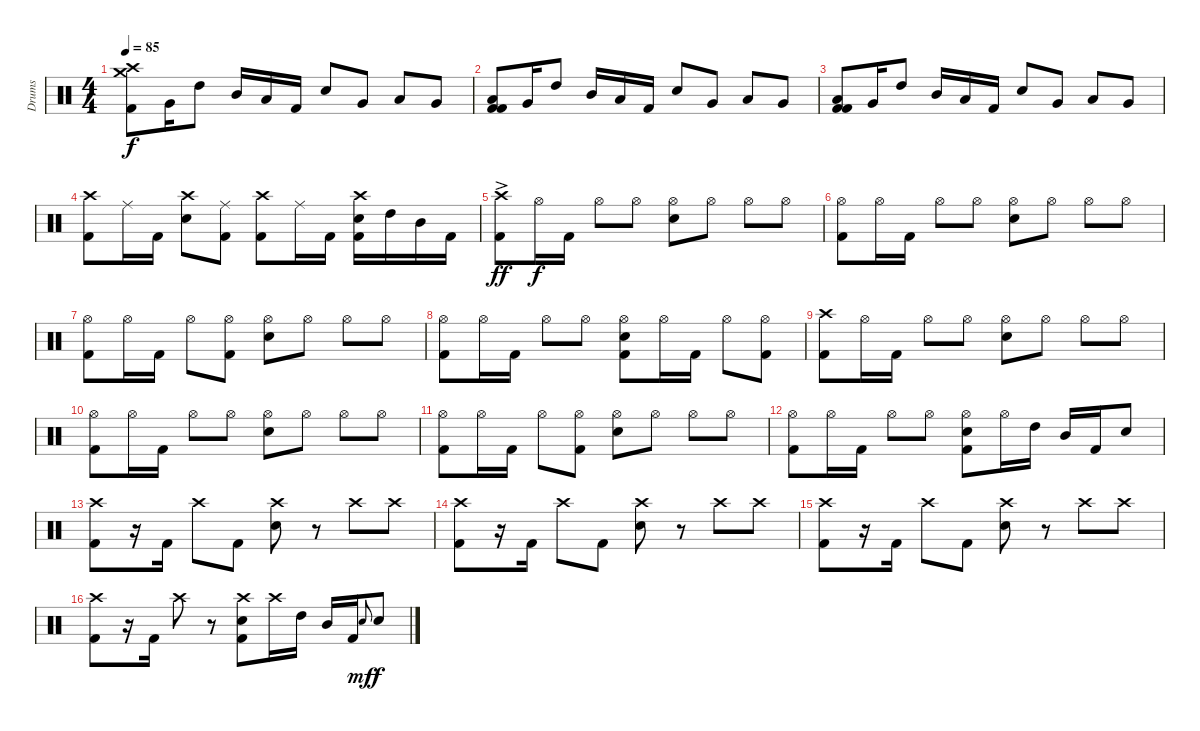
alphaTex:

\track ("Drums" "Drums") {instrument percussion}
\staff {score}
\articulation defaults
\ts (4 4)
\tempo 85
\clef neutral
\ks c
("Crash medium (hit)" "Crash high (hit)" "Kick (hit) 2").8{dy f} "Very Low Tom (hit)".16 "High Tom (hit)".8 "Mid Tom (hit)".16 "Low Tom (hit)".16 "Kick (hit) 2".16 "Electric Snare (hit)".8 "Very Low Tom (hit)".8 "Low Tom (hit)".8 "Very Low Tom (hit)".8 |
("Low Floor Tom (hit)" "Kick (hit) 2" "Kick (hit) 2").8 "Very Low Tom (hit)".16 "High Tom (hit)".8 "Mid Tom (hit)".16 "Low Tom (hit)".16 "Kick (hit) 2".16 "Electric Snare (hit)".8 "Very Low Tom (hit)".8 "Low Tom (hit)".8 "Very Low Tom (hit)".8 |
("Low Floor Tom (hit)" "Kick (hit) 2" "Kick (hit) 2").8 "Very Low Tom (hit)".16 "High Tom (hit)".8 "Mid Tom (hit)".16 "Low Tom (hit)".16 "Kick (hit) 2".16 "Electric Snare (hit)".8 "Very Low Tom (hit)".8 "Low Tom (hit)".8 "Very Low Tom (hit)".8 |
("Crash high (hit)" "Kick (hit) 2").8 "Ride (middle)".16 "Kick (hit) 2".16 ("Electric Snare (hit)" "Crash high (hit)").8 ("Kick (hit) 2" "Ride (middle)").8 ("Crash high (hit)" "Kick (hit) 2").8 "Ride (middle)".16 "Kick (hit) 2".16 ("Electric Snare (hit)" "Kick (hit) 2" "Crash high (hit)").16 "High Tom (hit)".16 "Mid Tom (hit)".16 "Kick (hit) 2".16 |
("Crash high (hit)"{ac} "Kick (hit) 2").8{dy ff} "Hi-Hat (open)".16{dy f} "Kick (hit) 2".16 "Hi-Hat (open)".8 "Hi-Hat (open)".8 ("Hi-Hat (open)" "Electric Snare (hit)").8 "Hi-Hat (open)".8 "Hi-Hat (open)".8 "Hi-Hat (open)".8 |
("Hi-Hat (open)" "Kick (hit) 2").8 "Hi-Hat (open)".16 "Kick (hit) 2".16 "Hi-Hat (open)".8 "Hi-Hat (open)".8 ("Hi-Hat (open)" "Electric Snare (hit)").8 "Hi-Hat (open)".8 "Hi-Hat (open)".8 "Hi-Hat (open)".8 |
("Hi-Hat (open)" "Kick (hit) 2").8 "Hi-Hat (open)".16 "Kick (hit) 2".16 "Hi-Hat (open)".8 ("Hi-Hat (open)" "Kick (hit) 2").8 ("Hi-Hat (open)" "Electric Snare (hit)").8 "Hi-Hat (open)".8 "Hi-Hat (open)".8 "Hi-Hat (open)".8 |
("Hi-Hat (open)" "Kick (hit) 2").8 "Hi-Hat (open)".16 "Kick (hit) 2".16 "Hi-Hat (open)".8 "Hi-Hat (open)".8 ("Hi-Hat (open)" "Electric Snare (hit)" "Kick (hit) 2").8 "Hi-Hat (open)".16 "Kick (hit) 2".16 "Hi-Hat (open)".8 ("Hi-Hat (open)" "Kick (hit) 2").8 |
("Crash high (hit)" "Kick (hit) 2").8 "Hi-Hat (open)".16 "Kick (hit) 2".16 "Hi-Hat (open)".8 "Hi-Hat (open)".8 ("Hi-Hat (open)" "Electric Snare (hit)").8 "Hi-Hat (open)".8 "Hi-Hat (open)".8 "Hi-Hat (open)".8 |
("Hi-Hat (open)" "Kick (hit) 2").8 "Hi-Hat (open)".16 "Kick (hit) 2".16 "Hi-Hat (open)".8 "Hi-Hat (open)".8 ("Hi-Hat (open)" "Electric Snare (hit)").8 "Hi-Hat (open)".8 "Hi-Hat (open)".8 "Hi-Hat (open)".8 |
("Hi-Hat (open)" "Kick (hit) 2").8 "Hi-Hat (open)".16 "Kick (hit) 2".16 "Hi-Hat (open)".8 ("Hi-Hat (open)" "Kick (hit) 2").8 ("Hi-Hat (open)" "Electric Snare (hit)").8 "Hi-Hat (open)".8 "Hi-Hat (open)".8 "Hi-Hat (open)".8 |
("Hi-Hat (open)" "Kick (hit) 2").8 "Hi-Hat (open)".16 "Kick (hit) 2".16 "Hi-Hat (open)".8 "Hi-Hat (open)".8 ("Hi-Hat (open)" "Electric Snare (hit)" "Kick (hit) 2").8 "Hi-Hat (open)".16 "High Tom (hit)".16 "Mid Tom (hit)".16 "Kick (hit) 2".16 "Electric Snare (hit)".8 |
("Crash high (hit)" "Kick (hit) 2").8 r.16 "Kick (hit) 2".16 "Crash high (hit)".8 "Kick (hit) 2".8 ("Crash high (hit)" "Electric Snare (hit)").8 r.8 "Crash high (hit)".8 "Crash high (hit)".8 |
("Crash high (hit)" "Kick (hit) 2").8 r.16 "Kick (hit) 2".16 "Crash high (hit)".8 "Kick (hit) 2".8 ("Crash high (hit)" "Electric Snare (hit)").8 r.8 "Crash high (hit)".8 "Crash high (hit)".8 |
("Crash high (hit)" "Kick (hit) 2").8 r.16 "Kick (hit) 2".16 "Crash high (hit)".8 "Kick (hit) 2".8 ("Crash high (hit)" "Electric Snare (hit)").8 r.8 "Crash high (hit)".8 "Crash high (hit)".8 |
("Crash high (hit)" "Kick (hit) 2").8 r.16 "Kick (hit) 2".16 "Crash high (hit)".8 r.8 ("Crash high (hit)" "Electric Snare (hit)" "Kick (hit) 2").8 "Crash high (hit)".16 "High Tom (hit)".16 "Mid Tom (hit)".16 "Kick (hit) 2".16 "Electric Snare (hit)".8{gr onbeat dy mf} "Electric Snare (hit)".8{dy f}
